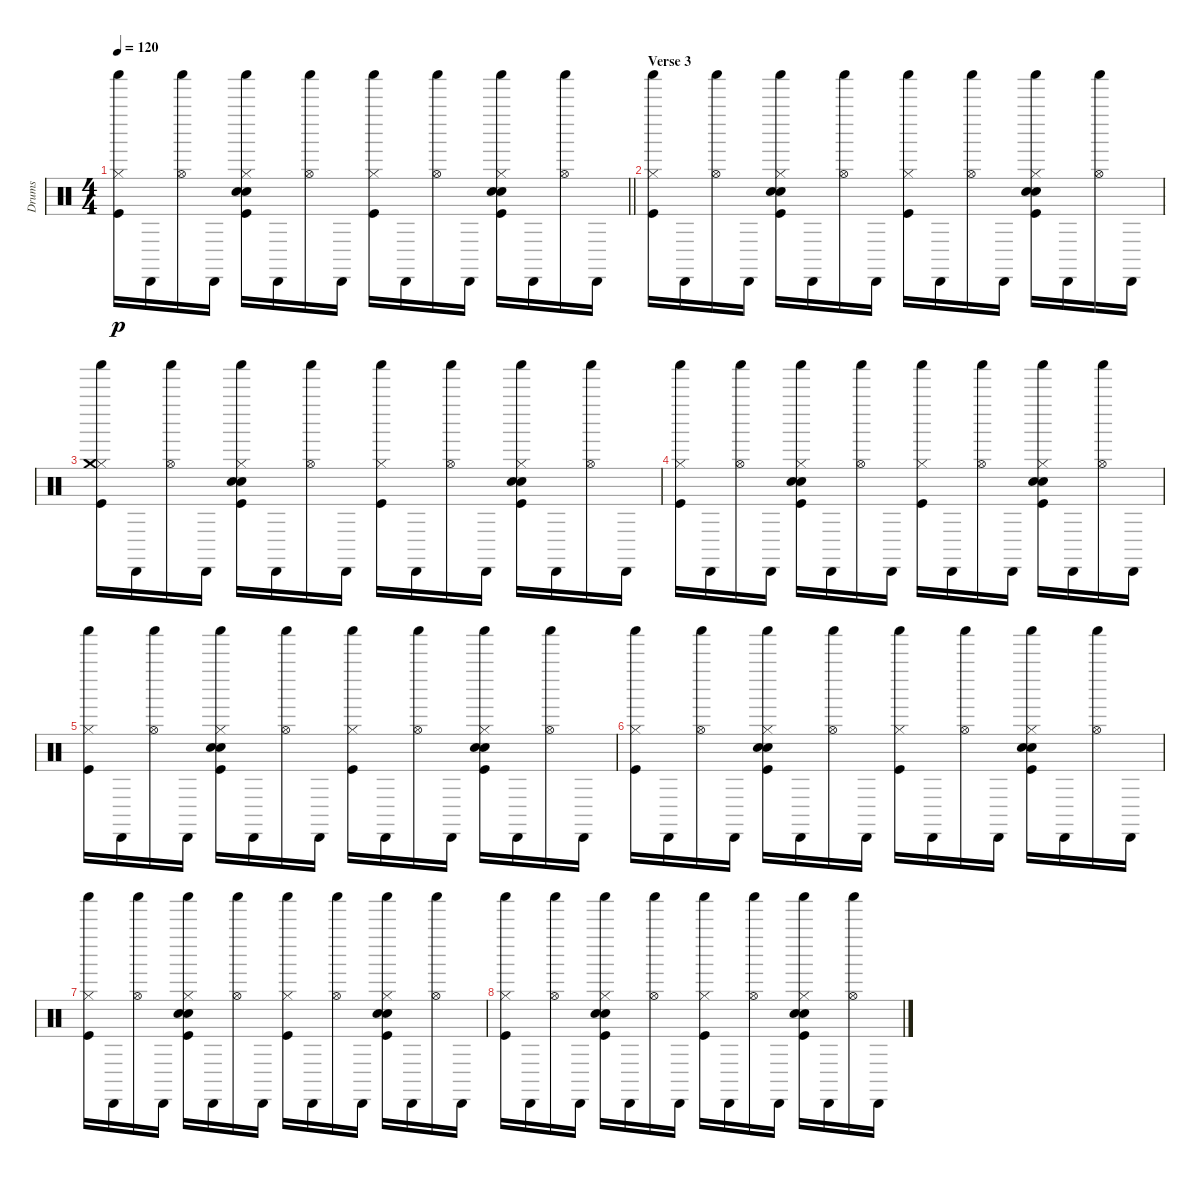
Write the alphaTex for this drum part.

\track ("Drums" "Drums") {instrument percussion}
\staff {score}
\articulation defaults
\ts (4 4)
\tempo 120
\clef neutral
\barLineRight lightlight
\ks c
("Kick (hit)" "Hi-Hat (closed)" "Shaker (hit)").16{dy p} "Cabasa (hit)".16 ("Hi-Hat (open)" "Shaker (hit)").16 "Cabasa (hit)".16 ("Kick (hit)" "Snare (hit) 2" "Electric Snare (hit)" "Hi-Hat (closed)" "Shaker (hit)").16 "Cabasa (hit)".16 ("Hi-Hat (open)" "Shaker (hit)").16 "Cabasa (hit)".16 ("Kick (hit)" "Hi-Hat (closed)" "Shaker (hit)").16 "Cabasa (hit)".16 ("Hi-Hat (open)" "Shaker (hit)").16 "Cabasa (hit)".16 ("Kick (hit)" "Snare (hit) 2" "Electric Snare (hit)" "Hi-Hat (closed)" "Shaker (hit)").16 "Cabasa (hit)".16 ("Hi-Hat (open)" "Shaker (hit)").16 "Cabasa (hit)".16 |
\section ("" "Verse 3")
("Kick (hit)" "Hi-Hat (closed)" "Shaker (hit)").16 "Cabasa (hit)".16 ("Hi-Hat (open)" "Shaker (hit)").16 "Cabasa (hit)".16 ("Kick (hit)" "Snare (hit) 2" "Electric Snare (hit)" "Hi-Hat (closed)" "Shaker (hit)").16 "Cabasa (hit)".16 ("Hi-Hat (open)" "Shaker (hit)").16 "Cabasa (hit)".16 ("Kick (hit)" "Hi-Hat (closed)" "Shaker (hit)").16 "Cabasa (hit)".16 ("Hi-Hat (open)" "Shaker (hit)").16 "Cabasa (hit)".16 ("Kick (hit)" "Snare (hit) 2" "Electric Snare (hit)" "Hi-Hat (closed)" "Shaker (hit)").16 "Cabasa (hit)".16 ("Hi-Hat (open)" "Shaker (hit)").16 "Cabasa (hit)".16 |
("Kick (hit)" "Hi-Hat (closed)" "Crash medium (hit)" "Shaker (hit)").16 "Cabasa (hit)".16 ("Hi-Hat (open)" "Shaker (hit)").16 "Cabasa (hit)".16 ("Kick (hit)" "Snare (hit) 2" "Electric Snare (hit)" "Hi-Hat (closed)" "Shaker (hit)").16 "Cabasa (hit)".16 ("Hi-Hat (open)" "Shaker (hit)").16 "Cabasa (hit)".16 ("Kick (hit)" "Hi-Hat (closed)" "Shaker (hit)").16 "Cabasa (hit)".16 ("Hi-Hat (open)" "Shaker (hit)").16 "Cabasa (hit)".16 ("Kick (hit)" "Snare (hit) 2" "Electric Snare (hit)" "Hi-Hat (closed)" "Shaker (hit)").16 "Cabasa (hit)".16 ("Hi-Hat (open)" "Shaker (hit)").16 "Cabasa (hit)".16 |
("Kick (hit)" "Hi-Hat (closed)" "Shaker (hit)").16 "Cabasa (hit)".16 ("Hi-Hat (open)" "Shaker (hit)").16 "Cabasa (hit)".16 ("Kick (hit)" "Snare (hit) 2" "Electric Snare (hit)" "Hi-Hat (closed)" "Shaker (hit)").16 "Cabasa (hit)".16 ("Hi-Hat (open)" "Shaker (hit)").16 "Cabasa (hit)".16 ("Kick (hit)" "Hi-Hat (closed)" "Shaker (hit)").16 "Cabasa (hit)".16 ("Hi-Hat (open)" "Shaker (hit)").16 "Cabasa (hit)".16 ("Kick (hit)" "Snare (hit) 2" "Electric Snare (hit)" "Hi-Hat (closed)" "Shaker (hit)").16 "Cabasa (hit)".16 ("Hi-Hat (open)" "Shaker (hit)").16 "Cabasa (hit)".16 |
("Kick (hit)" "Hi-Hat (closed)" "Shaker (hit)").16 "Cabasa (hit)".16 ("Hi-Hat (open)" "Shaker (hit)").16 "Cabasa (hit)".16 ("Kick (hit)" "Snare (hit) 2" "Electric Snare (hit)" "Hi-Hat (closed)" "Shaker (hit)").16 "Cabasa (hit)".16 ("Hi-Hat (open)" "Shaker (hit)").16 "Cabasa (hit)".16 ("Kick (hit)" "Hi-Hat (closed)" "Shaker (hit)").16 "Cabasa (hit)".16 ("Hi-Hat (open)" "Shaker (hit)").16 "Cabasa (hit)".16 ("Kick (hit)" "Snare (hit) 2" "Electric Snare (hit)" "Hi-Hat (closed)" "Shaker (hit)").16 "Cabasa (hit)".16 ("Hi-Hat (open)" "Shaker (hit)").16 "Cabasa (hit)".16 |
("Kick (hit)" "Hi-Hat (closed)" "Shaker (hit)").16 "Cabasa (hit)".16 ("Hi-Hat (open)" "Shaker (hit)").16 "Cabasa (hit)".16 ("Kick (hit)" "Snare (hit) 2" "Electric Snare (hit)" "Hi-Hat (closed)" "Shaker (hit)").16 "Cabasa (hit)".16 ("Hi-Hat (open)" "Shaker (hit)").16 "Cabasa (hit)".16 ("Kick (hit)" "Hi-Hat (closed)" "Shaker (hit)").16 "Cabasa (hit)".16 ("Hi-Hat (open)" "Shaker (hit)").16 "Cabasa (hit)".16 ("Kick (hit)" "Snare (hit) 2" "Electric Snare (hit)" "Hi-Hat (closed)" "Shaker (hit)").16 "Cabasa (hit)".16 ("Hi-Hat (open)" "Shaker (hit)").16 "Cabasa (hit)".16 |
("Kick (hit)" "Hi-Hat (closed)" "Shaker (hit)").16 "Cabasa (hit)".16 ("Hi-Hat (open)" "Shaker (hit)").16 "Cabasa (hit)".16 ("Kick (hit)" "Snare (hit) 2" "Electric Snare (hit)" "Hi-Hat (closed)" "Shaker (hit)").16 "Cabasa (hit)".16 ("Hi-Hat (open)" "Shaker (hit)").16 "Cabasa (hit)".16 ("Kick (hit)" "Hi-Hat (closed)" "Shaker (hit)").16 "Cabasa (hit)".16 ("Hi-Hat (open)" "Shaker (hit)").16 "Cabasa (hit)".16 ("Kick (hit)" "Snare (hit) 2" "Electric Snare (hit)" "Hi-Hat (closed)" "Shaker (hit)").16 "Cabasa (hit)".16 ("Hi-Hat (open)" "Shaker (hit)").16 "Cabasa (hit)".16 |
("Kick (hit)" "Hi-Hat (closed)" "Shaker (hit)").16 "Cabasa (hit)".16 ("Hi-Hat (open)" "Shaker (hit)").16 "Cabasa (hit)".16 ("Kick (hit)" "Snare (hit) 2" "Electric Snare (hit)" "Hi-Hat (closed)" "Shaker (hit)").16 "Cabasa (hit)".16 ("Hi-Hat (open)" "Shaker (hit)").16 "Cabasa (hit)".16 ("Kick (hit)" "Hi-Hat (closed)" "Shaker (hit)").16 "Cabasa (hit)".16 ("Hi-Hat (open)" "Shaker (hit)").16 "Cabasa (hit)".16 ("Kick (hit)" "Snare (hit) 2" "Electric Snare (hit)" "Hi-Hat (closed)" "Shaker (hit)").16 "Cabasa (hit)".16 ("Hi-Hat (open)" "Shaker (hit)").16 "Cabasa (hit)".16
